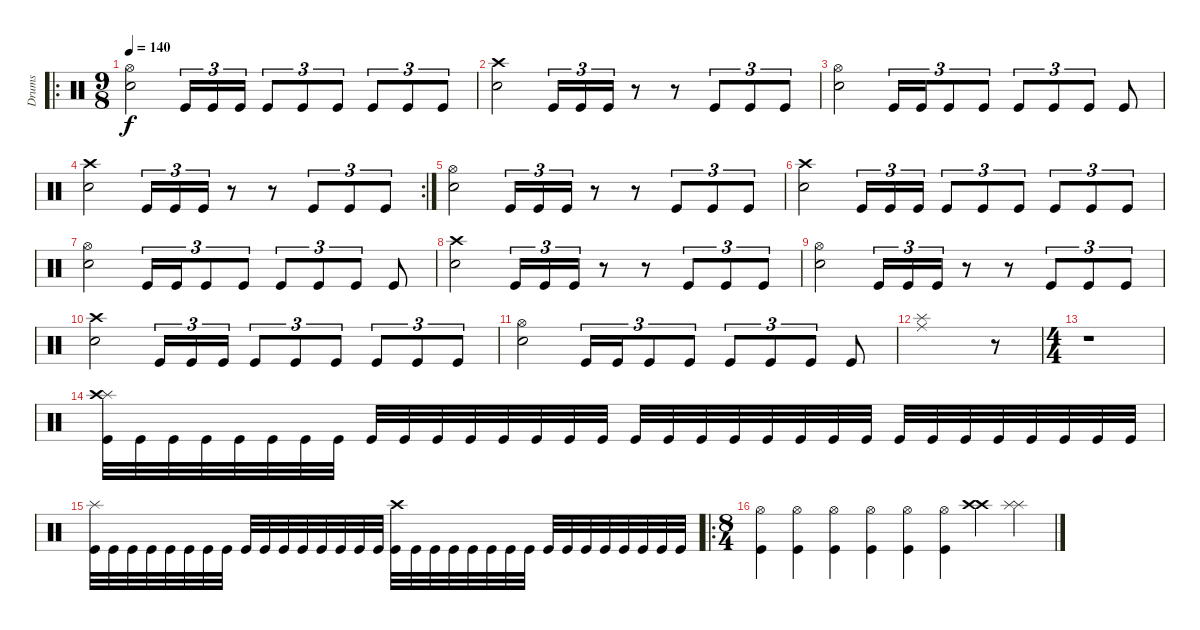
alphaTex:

\track ("Drums" "Drums") {instrument percussion}
\staff {score}
\articulation defaults
\ro
\ts (9 8)
\tempo 140
\clef neutral
\ks c
("Snare (hit) 2" "Hi-Hat (open)").2{dy f} "Kick (hit)".16{tu (3 2)} "Kick (hit)".16{tu (3 2)} "Kick (hit)".16{tu (3 2)} "Kick (hit)".8{tu (3 2)} "Kick (hit)".8{tu (3 2)} "Kick (hit)".8{tu (3 2)} "Kick (hit)".8{tu (3 2)} "Kick (hit)".8{tu (3 2)} "Kick (hit)".8{tu (3 2)} |
("Snare (hit) 2" "Crash high (hit)").2 "Kick (hit)".16{tu (3 2)} "Kick (hit)".16{tu (3 2)} "Kick (hit)".16{tu (3 2)} r.8 r.8 "Kick (hit)".8{tu (3 2)} "Kick (hit)".8{tu (3 2)} "Kick (hit)".8{tu (3 2)} |
("Snare (hit) 2" "Hi-Hat (open)").2 "Kick (hit)".16{tu (3 2)} "Kick (hit)".16{tu (3 2)} "Kick (hit)".8{tu (3 2)} "Kick (hit)".8{tu (3 2)} "Kick (hit)".8{tu (3 2)} "Kick (hit)".8{tu (3 2)} "Kick (hit)".8{tu (3 2)} "Kick (hit)".8 |
\rc 2
("Snare (hit) 2" "Crash high (hit)").2 "Kick (hit)".16{tu (3 2)} "Kick (hit)".16{tu (3 2)} "Kick (hit)".16{tu (3 2)} r.8 r.8 "Kick (hit)".8{tu (3 2)} "Kick (hit)".8{tu (3 2)} "Kick (hit)".8{tu (3 2)} |
("Snare (hit) 2" "Hi-Hat (open)").2 "Kick (hit)".16{tu (3 2)} "Kick (hit)".16{tu (3 2)} "Kick (hit)".16{tu (3 2)} r.8 r.8 "Kick (hit)".8{tu (3 2)} "Kick (hit)".8{tu (3 2)} "Kick (hit)".8{tu (3 2)} |
("Snare (hit) 2" "Crash high (hit)").2 "Kick (hit)".16{tu (3 2)} "Kick (hit)".16{tu (3 2)} "Kick (hit)".16{tu (3 2)} "Kick (hit)".8{tu (3 2)} "Kick (hit)".8{tu (3 2)} "Kick (hit)".8{tu (3 2)} "Kick (hit)".8{tu (3 2)} "Kick (hit)".8{tu (3 2)} "Kick (hit)".8{tu (3 2)} |
("Snare (hit) 2" "Hi-Hat (open)").2 "Kick (hit)".16{tu (3 2)} "Kick (hit)".16{tu (3 2)} "Kick (hit)".8{tu (3 2)} "Kick (hit)".8{tu (3 2)} "Kick (hit)".8{tu (3 2)} "Kick (hit)".8{tu (3 2)} "Kick (hit)".8{tu (3 2)} "Kick (hit)".8 |
("Snare (hit) 2" "Crash high (hit)").2 "Kick (hit)".16{tu (3 2)} "Kick (hit)".16{tu (3 2)} "Kick (hit)".16{tu (3 2)} r.8 r.8 "Kick (hit)".8{tu (3 2)} "Kick (hit)".8{tu (3 2)} "Kick (hit)".8{tu (3 2)} |
("Snare (hit) 2" "Hi-Hat (open)").2 "Kick (hit)".16{tu (3 2)} "Kick (hit)".16{tu (3 2)} "Kick (hit)".16{tu (3 2)} r.8 r.8 "Kick (hit)".8{tu (3 2)} "Kick (hit)".8{tu (3 2)} "Kick (hit)".8{tu (3 2)} |
("Snare (hit) 2" "Crash high (hit)").2 "Kick (hit)".16{tu (3 2)} "Kick (hit)".16{tu (3 2)} "Kick (hit)".16{tu (3 2)} "Kick (hit)".8{tu (3 2)} "Kick (hit)".8{tu (3 2)} "Kick (hit)".8{tu (3 2)} "Kick (hit)".8{tu (3 2)} "Kick (hit)".8{tu (3 2)} "Kick (hit)".8{tu (3 2)} |
("Snare (hit) 2" "Hi-Hat (open)").2 "Kick (hit)".16{tu (3 2)} "Kick (hit)".16{tu (3 2)} "Kick (hit)".8{tu (3 2)} "Kick (hit)".8{tu (3 2)} "Kick (hit)".8{tu (3 2)} "Kick (hit)".8{tu (3 2)} "Kick (hit)".8{tu (3 2)} "Kick (hit)".8 |
("Ride (middle)" "Splash (hit)").1 r.8 |
\ts (4 4)
r.1 |
("Splash (hit)" "Crash high (hit)" "Kick (hit)").32 "Kick (hit)".32 "Kick (hit)".32 "Kick (hit)".32 "Kick (hit)".32 "Kick (hit)".32 "Kick (hit)".32 "Kick (hit)".32 "Kick (hit)".32 "Kick (hit)".32 "Kick (hit)".32 "Kick (hit)".32 "Kick (hit)".32 "Kick (hit)".32 "Kick (hit)".32 "Kick (hit)".32 "Kick (hit)".32 "Kick (hit)".32 "Kick (hit)".32 "Kick (hit)".32 "Kick (hit)".32 "Kick (hit)".32 "Kick (hit)".32 "Kick (hit)".32 "Kick (hit)".32 "Kick (hit)".32 "Kick (hit)".32 "Kick (hit)".32 "Kick (hit)".32 "Kick (hit)".32 "Kick (hit)".32 "Kick (hit)".32 |
("Splash (hit)" "Kick (hit)").32 "Kick (hit)".32 "Kick (hit)".32 "Kick (hit)".32 "Kick (hit)".32 "Kick (hit)".32 "Kick (hit)".32 "Kick (hit)".32 "Kick (hit)".32 "Kick (hit)".32 "Kick (hit)".32 "Kick (hit)".32 "Kick (hit)".32 "Kick (hit)".32 "Kick (hit)".32 "Kick (hit)".32 ("Crash high (hit)" "Kick (hit)").32 "Kick (hit)".32 "Kick (hit)".32 "Kick (hit)".32 "Kick (hit)".32 "Kick (hit)".32 "Kick (hit)".32 "Kick (hit)".32 "Kick (hit)".32 "Kick (hit)".32 "Kick (hit)".32 "Kick (hit)".32 "Kick (hit)".32 "Kick (hit)".32 "Kick (hit)".32 "Kick (hit)".32 |
\ro
\ts (8 4)
("Hi-Hat (open)" "Kick (hit)").4 ("Hi-Hat (open)" "Kick (hit)").4 ("Hi-Hat (open)" "Kick (hit)").4 ("Hi-Hat (open)" "Kick (hit)").4 ("Hi-Hat (open)" "Kick (hit)").4 ("Hi-Hat (open)" "Kick (hit)").4 ("Crash high (hit)" "Crash high (hit)").4 ("Splash (hit)" "Splash (hit)").4
